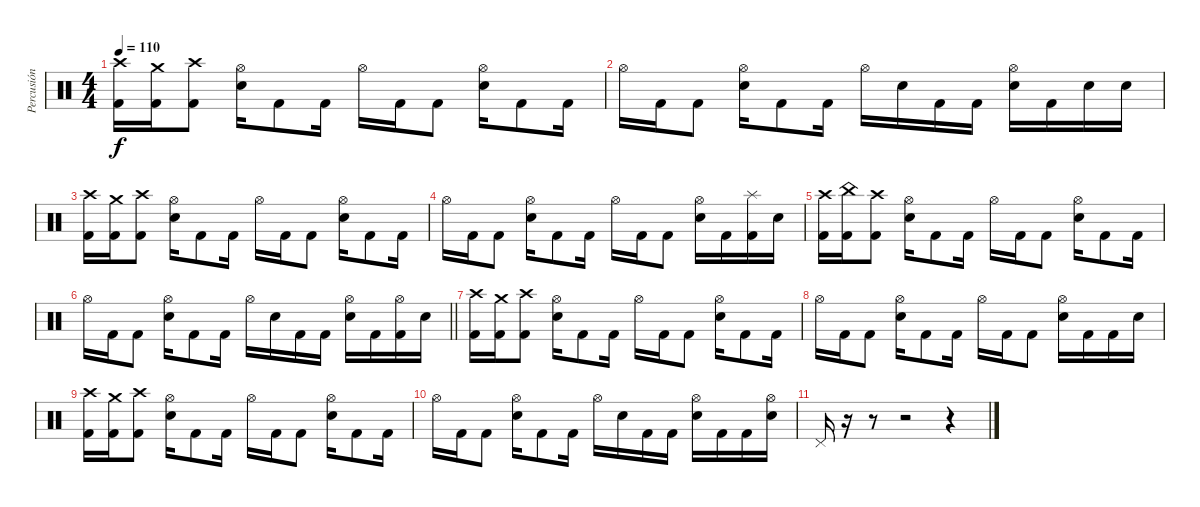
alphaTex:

\track ("Percusión" "Percusión") {instrument percussion}
\staff {score}
\articulation defaults
\ts (4 4)
\tempo 110
\clef neutral
\ks c
("Crash high (hit)" "Kick (hit) 2").16{dy f} ("Crash medium (hit)" "Kick (hit) 2").16 ("Crash high (hit)" "Kick (hit) 2").8 ("Hi-Hat (open)" "Snare (hit) 2").16 "Kick (hit) 2".8 "Kick (hit) 2".16 "Hi-Hat (open)".16 "Kick (hit) 2".16 "Kick (hit) 2".8 ("Hi-Hat (open)" "Snare (hit) 2").16 "Kick (hit) 2".8 "Kick (hit) 2".16 |
"Hi-Hat (open)".16 "Kick (hit) 2".16 "Kick (hit) 2".8 ("Hi-Hat (open)" "Snare (hit) 2").16 "Kick (hit) 2".8 "Kick (hit) 2".16 "Hi-Hat (open)".16 "Snare (hit) 2".16 "Kick (hit) 2".16 "Kick (hit) 2".16 ("Hi-Hat (open)" "Snare (hit) 2").16 "Kick (hit) 2".16 "Snare (hit) 2".16 "Snare (hit) 2".16 |
("Crash high (hit)" "Kick (hit) 2").16 ("Crash medium (hit)" "Kick (hit) 2").16 ("Crash high (hit)" "Kick (hit) 2").8 ("Hi-Hat (open)" "Snare (hit) 2").16 "Kick (hit) 2".8 "Kick (hit) 2".16 "Hi-Hat (open)".16 "Kick (hit) 2".16 "Kick (hit) 2".8 ("Hi-Hat (open)" "Snare (hit) 2").16 "Kick (hit) 2".8 "Kick (hit) 2".16 |
"Hi-Hat (open)".16 "Kick (hit) 2".16 "Kick (hit) 2".8 ("Hi-Hat (open)" "Snare (hit) 2").16 "Kick (hit) 2".8 "Kick (hit) 2".16 "Hi-Hat (open)".16 "Kick (hit) 2".16 "Kick (hit) 2".8 ("Hi-Hat (open)" "Snare (hit) 2").16 "Kick (hit) 2".16 ("Splash (hit)" "Kick (hit) 2").16 "Snare (hit) 2".16 |
("Crash high (hit)" "Kick (hit) 2").16 ("China (hit)" "Kick (hit) 2").16 ("Crash high (hit)" "Kick (hit) 2").8 ("Hi-Hat (open)" "Snare (hit) 2").16 "Kick (hit) 2".8 "Kick (hit) 2".16 "Hi-Hat (open)".16 "Kick (hit) 2".16 "Kick (hit) 2".8 ("Hi-Hat (open)" "Snare (hit) 2").16 "Kick (hit) 2".8 "Kick (hit) 2".16 |
\barLineRight lightlight "Hi-Hat (open)".16 "Kick (hit) 2".16 "Kick (hit) 2".8
("Hi-Hat (open)" "Snare (hit) 2").16 "Kick (hit) 2".8 "Kick (hit) 2".16 "Hi-Hat (open)".16 "Snare (hit) 2".16 "Kick (hit) 2".16 "Kick (hit) 2".16 ("Hi-Hat (open)" "Snare (hit) 2").16 "Kick (hit) 2".16 ("Hi-Hat (open)" "Kick (hit) 2").16 "Snare (hit) 2".16 |
("Crash high (hit)" "Kick (hit) 2").16{volume 7} ("Crash medium (hit)" "Kick (hit) 2").16 ("Crash high (hit)" "Kick (hit) 2").8 ("Hi-Hat (open)" "Snare (hit) 2").16 "Kick (hit) 2".8 "Kick (hit) 2".16 "Hi-Hat (open)".16 "Kick (hit) 2".16 "Kick (hit) 2".8 ("Hi-Hat (open)" "Snare (hit) 2").16 "Kick (hit) 2".8 "Kick (hit) 2".16 |
"Hi-Hat (open)".16 "Kick (hit) 2".16 "Kick (hit) 2".8 ("Hi-Hat (open)" "Snare (hit) 2").16 "Kick (hit) 2".8 "Kick (hit) 2".16 "Hi-Hat (open)".16 "Kick (hit) 2".16 "Kick (hit) 2".8 ("Hi-Hat (open)" "Snare (hit) 2").16 "Kick (hit) 2".16 "Kick (hit) 2".16 "Snare (hit) 2".16 |
("Crash high (hit)" "Kick (hit) 2").16 ("Crash medium (hit)" "Kick (hit) 2").16 ("Crash high (hit)" "Kick (hit) 2").8 ("Hi-Hat (open)" "Snare (hit) 2").16 "Kick (hit) 2".8 "Kick (hit) 2".16 "Hi-Hat (open)".16 "Kick (hit) 2".16 "Kick (hit) 2".8 ("Hi-Hat (open)" "Snare (hit) 2").16 "Kick (hit) 2".8 "Kick (hit) 2".16 |
"Hi-Hat (open)".16 "Kick (hit) 2".16 "Kick (hit) 2".8 ("Hi-Hat (open)" "Snare (hit) 2").16 "Kick (hit) 2".8 "Kick (hit) 2".16 "Hi-Hat (open)".16 "Snare (hit) 2".16 "Kick (hit) 2".16 "Kick (hit) 2".16 ("Hi-Hat (open)" "Snare (hit) 2").16 "Kick (hit) 2".16 "Kick (hit) 2".16 ("Hi-Hat (open)" "Snare (hit) 2").16 |
"Pedal Hi-Hat (hit)".16 r.16 r.8 r.2 r.4
